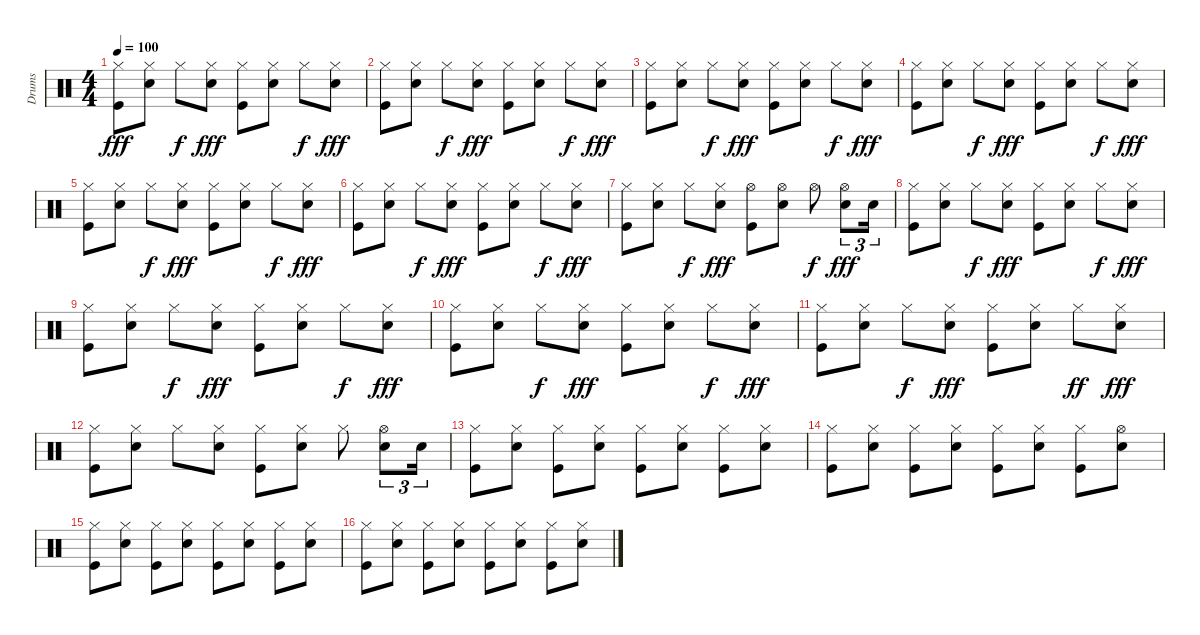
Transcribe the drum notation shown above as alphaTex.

\track ("Drums" "Drums") {instrument percussion}
\staff {score}
\articulation defaults
\ts (4 4)
\tempo 100
\clef neutral
\ks c
("Hi-Hat (closed)" "Kick (hit)").8{dy fff} ("Hi-Hat (closed)" "Snare (hit) 2").8 "Hi-Hat (closed)".8{dy f} ("Hi-Hat (closed)" "Snare (hit) 2").8{dy fff} ("Hi-Hat (closed)" "Kick (hit)").8 ("Hi-Hat (closed)" "Snare (hit) 2").8 "Hi-Hat (closed)".8{dy f} ("Hi-Hat (closed)" "Snare (hit) 2").8{dy fff} |
("Hi-Hat (closed)" "Kick (hit)").8 ("Hi-Hat (closed)" "Snare (hit) 2").8 "Hi-Hat (closed)".8{dy f} ("Hi-Hat (closed)" "Snare (hit) 2").8{dy fff} ("Hi-Hat (closed)" "Kick (hit)").8 ("Hi-Hat (closed)" "Snare (hit) 2").8 "Hi-Hat (closed)".8{dy f} ("Hi-Hat (closed)" "Snare (hit) 2").8{dy fff} |
("Hi-Hat (closed)" "Kick (hit)").8 ("Hi-Hat (closed)" "Snare (hit) 2").8 "Hi-Hat (closed)".8{dy f} ("Hi-Hat (closed)" "Snare (hit) 2").8{dy fff} ("Hi-Hat (closed)" "Kick (hit)").8 ("Hi-Hat (closed)" "Snare (hit) 2").8 "Hi-Hat (closed)".8{dy f} ("Hi-Hat (closed)" "Snare (hit) 2").8{dy fff} |
("Hi-Hat (closed)" "Kick (hit)").8 ("Hi-Hat (closed)" "Snare (hit) 2").8 "Hi-Hat (closed)".8{dy f} ("Hi-Hat (closed)" "Snare (hit) 2").8{dy fff} ("Hi-Hat (closed)" "Kick (hit)").8 ("Hi-Hat (closed)" "Snare (hit) 2").8 "Hi-Hat (closed)".8{dy f} ("Hi-Hat (closed)" "Snare (hit) 2").8{dy fff} |
("Hi-Hat (closed)" "Kick (hit)").8 ("Hi-Hat (closed)" "Snare (hit) 2").8 "Hi-Hat (closed)".8{dy f} ("Hi-Hat (closed)" "Snare (hit) 2").8{dy fff} ("Hi-Hat (closed)" "Kick (hit)").8 ("Hi-Hat (closed)" "Snare (hit) 2").8 "Hi-Hat (closed)".8{dy f} ("Hi-Hat (closed)" "Snare (hit) 2").8{dy fff} |
("Hi-Hat (closed)" "Kick (hit)").8 ("Hi-Hat (closed)" "Snare (hit) 2").8 "Hi-Hat (closed)".8{dy f} ("Hi-Hat (closed)" "Snare (hit) 2").8{dy fff} ("Hi-Hat (closed)" "Kick (hit)").8 ("Hi-Hat (closed)" "Snare (hit) 2").8 "Hi-Hat (closed)".8{dy f} ("Hi-Hat (closed)" "Snare (hit) 2").8{dy fff} |
("Hi-Hat (closed)" "Kick (hit)").8 ("Hi-Hat (closed)" "Snare (hit) 2").8 "Hi-Hat (closed)".8{dy f} ("Hi-Hat (closed)" "Snare (hit) 2").8{dy fff} ("Hi-Hat (open)" "Kick (hit)").8 ("Hi-Hat (open)" "Snare (hit) 2").8 "Hi-Hat (open)".8{dy f} ("Hi-Hat (open)" "Snare (hit) 2").8{tu (3 2) dy fff} "Snare (hit) 2".16{tu (3 2)} |
("Hi-Hat (closed)" "Kick (hit)").8 ("Hi-Hat (closed)" "Snare (hit) 2").8 "Hi-Hat (closed)".8{dy f} ("Hi-Hat (closed)" "Snare (hit) 2").8{dy fff} ("Hi-Hat (closed)" "Kick (hit)").8 ("Hi-Hat (closed)" "Snare (hit) 2").8 "Hi-Hat (closed)".8{dy f} ("Hi-Hat (closed)" "Snare (hit) 2").8{dy fff} |
("Hi-Hat (closed)" "Kick (hit)").8 ("Hi-Hat (closed)" "Snare (hit) 2").8 "Hi-Hat (closed)".8{dy f} ("Hi-Hat (closed)" "Snare (hit) 2").8{dy fff} ("Hi-Hat (closed)" "Kick (hit)").8 ("Hi-Hat (closed)" "Snare (hit) 2").8 "Hi-Hat (closed)".8{dy f} ("Hi-Hat (closed)" "Snare (hit) 2").8{dy fff} |
("Hi-Hat (closed)" "Kick (hit)").8 ("Hi-Hat (closed)" "Snare (hit) 2").8 "Hi-Hat (closed)".8{dy f} ("Hi-Hat (closed)" "Snare (hit) 2").8{dy fff} ("Hi-Hat (closed)" "Kick (hit)").8 ("Hi-Hat (closed)" "Snare (hit) 2").8 "Hi-Hat (closed)".8{dy f} ("Hi-Hat (closed)" "Snare (hit) 2").8{dy fff} |
("Hi-Hat (closed)" "Kick (hit)").8 ("Hi-Hat (closed)" "Snare (hit) 2").8 "Hi-Hat (closed)".8{dy f} ("Hi-Hat (closed)" "Snare (hit) 2").8{dy fff} ("Hi-Hat (closed)" "Kick (hit)").8 ("Hi-Hat (closed)" "Snare (hit) 2").8 "Hi-Hat (closed)".8{dy ff} ("Hi-Hat (closed)" "Snare (hit) 2").8{dy fff} |
("Hi-Hat (closed)" "Kick (hit)").8 ("Hi-Hat (closed)" "Snare (hit) 2").8 "Hi-Hat (closed)".8 ("Hi-Hat (closed)" "Snare (hit) 2").8 ("Hi-Hat (closed)" "Kick (hit)").8 ("Hi-Hat (closed)" "Snare (hit) 2").8 "Hi-Hat (closed)".8 ("Hi-Hat (open)" "Snare (hit) 2").8{tu (3 2)} "Snare (hit) 2".16{tu (3 2)} |
("Hi-Hat (closed)" "Kick (hit)").8 ("Hi-Hat (closed)" "Snare (hit) 2").8 ("Hi-Hat (closed)" "Kick (hit)").8 ("Hi-Hat (closed)" "Snare (hit) 2").8 ("Hi-Hat (closed)" "Kick (hit)").8 ("Hi-Hat (closed)" "Snare (hit) 2").8 ("Hi-Hat (closed)" "Kick (hit)").8 ("Hi-Hat (closed)" "Snare (hit) 2").8 |
("Hi-Hat (closed)" "Kick (hit)").8 ("Hi-Hat (closed)" "Snare (hit) 2").8 ("Hi-Hat (closed)" "Kick (hit)").8 ("Hi-Hat (closed)" "Snare (hit) 2").8 ("Hi-Hat (closed)" "Kick (hit)").8 ("Hi-Hat (closed)" "Snare (hit) 2").8 ("Hi-Hat (closed)" "Kick (hit)").8 ("Hi-Hat (open)" "Snare (hit) 2").8 |
("Hi-Hat (closed)" "Kick (hit)").8 ("Hi-Hat (closed)" "Snare (hit) 2").8 ("Hi-Hat (closed)" "Kick (hit)").8 ("Hi-Hat (closed)" "Snare (hit) 2").8 ("Hi-Hat (closed)" "Kick (hit)").8 ("Hi-Hat (closed)" "Snare (hit) 2").8 ("Hi-Hat (closed)" "Kick (hit)").8 ("Hi-Hat (closed)" "Snare (hit) 2").8 |
("Hi-Hat (closed)" "Kick (hit)").8 ("Hi-Hat (closed)" "Snare (hit) 2").8 ("Hi-Hat (closed)" "Kick (hit)").8 ("Hi-Hat (closed)" "Snare (hit) 2").8 ("Hi-Hat (closed)" "Kick (hit)").8 ("Hi-Hat (closed)" "Snare (hit) 2").8 ("Hi-Hat (closed)" "Kick (hit)").8 ("Hi-Hat (closed)" "Snare (hit) 2").8
